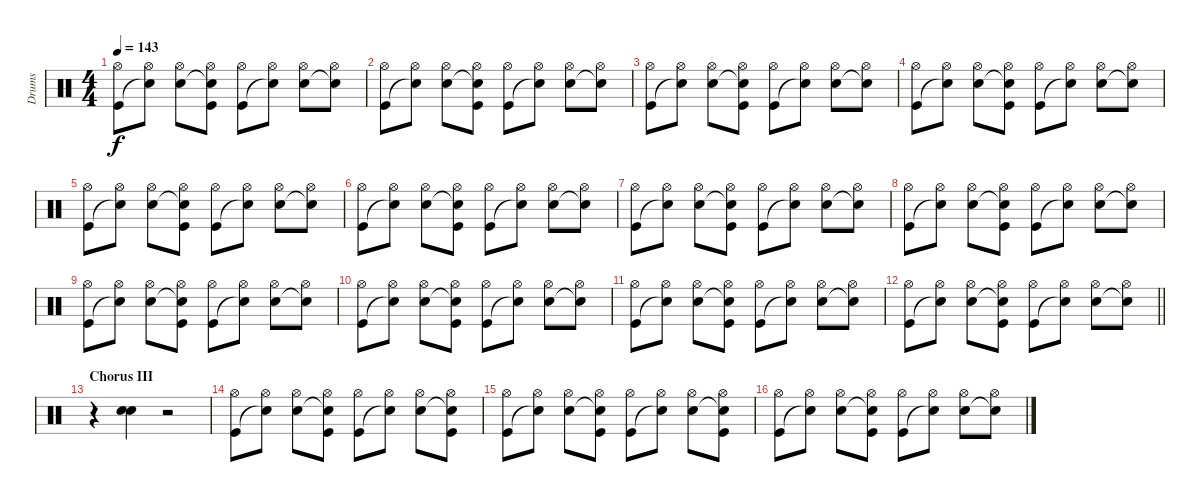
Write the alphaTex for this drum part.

\track ("Drums" "Drums") {instrument percussion}
\staff {score}
\articulation defaults
\ts (4 4)
\tempo 143
\clef neutral
\ks c
("Hi-Hat (open)" "Kick (hit)").8{dy f} ("Hi-Hat (open)" "Snare (hit)"{t}).8 ("Hi-Hat (open)" "Snare (hit) 2").8 ("Hi-Hat (open)" "Snare (hit)"{t} "Kick (hit)").8 ("Hi-Hat (open)" "Kick (hit)").8 ("Hi-Hat (open)" "Snare (hit)"{t}).8 ("Hi-Hat (open)" "Snare (hit) 2").8 ("Hi-Hat (open)" "Snare (hit)"{t}).8 |
("Hi-Hat (open)" "Kick (hit)").8 ("Hi-Hat (open)" "Snare (hit)"{t}).8 ("Hi-Hat (open)" "Snare (hit) 2").8 ("Hi-Hat (open)" "Snare (hit)"{t} "Kick (hit)").8 ("Hi-Hat (open)" "Kick (hit)").8 ("Hi-Hat (open)" "Snare (hit)"{t}).8 ("Hi-Hat (open)" "Snare (hit) 2").8 ("Hi-Hat (open)" "Snare (hit)"{t}).8 |
("Hi-Hat (open)" "Kick (hit)").8 ("Hi-Hat (open)" "Snare (hit)"{t}).8 ("Hi-Hat (open)" "Snare (hit) 2").8 ("Hi-Hat (open)" "Snare (hit)"{t} "Kick (hit)").8 ("Hi-Hat (open)" "Kick (hit)").8 ("Hi-Hat (open)" "Snare (hit)"{t}).8 ("Hi-Hat (open)" "Snare (hit) 2").8 ("Hi-Hat (open)" "Snare (hit)"{t}).8 |
("Hi-Hat (open)" "Kick (hit)").8 ("Hi-Hat (open)" "Snare (hit)"{t}).8 ("Hi-Hat (open)" "Snare (hit) 2").8 ("Hi-Hat (open)" "Snare (hit)"{t} "Kick (hit)").8 ("Hi-Hat (open)" "Kick (hit)").8 ("Hi-Hat (open)" "Snare (hit)"{t}).8 ("Hi-Hat (open)" "Snare (hit) 2").8 ("Hi-Hat (open)" "Snare (hit)"{t}).8 |
("Hi-Hat (open)" "Kick (hit)").8 ("Hi-Hat (open)" "Snare (hit)"{t}).8 ("Hi-Hat (open)" "Snare (hit) 2").8 ("Hi-Hat (open)" "Snare (hit)"{t} "Kick (hit)").8 ("Hi-Hat (open)" "Kick (hit)").8 ("Hi-Hat (open)" "Snare (hit)"{t}).8 ("Hi-Hat (open)" "Snare (hit) 2").8 ("Hi-Hat (open)" "Snare (hit)"{t}).8 |
("Hi-Hat (open)" "Kick (hit)").8 ("Hi-Hat (open)" "Snare (hit)"{t}).8 ("Hi-Hat (open)" "Snare (hit) 2").8 ("Hi-Hat (open)" "Snare (hit)"{t} "Kick (hit)").8 ("Hi-Hat (open)" "Kick (hit)").8 ("Hi-Hat (open)" "Snare (hit)"{t}).8 ("Hi-Hat (open)" "Snare (hit) 2").8 ("Hi-Hat (open)" "Snare (hit)"{t}).8 |
("Hi-Hat (open)" "Kick (hit)").8 ("Hi-Hat (open)" "Snare (hit)"{t}).8 ("Hi-Hat (open)" "Snare (hit) 2").8 ("Hi-Hat (open)" "Snare (hit)"{t} "Kick (hit)").8 ("Hi-Hat (open)" "Kick (hit)").8 ("Hi-Hat (open)" "Snare (hit)"{t}).8 ("Hi-Hat (open)" "Snare (hit) 2").8 ("Hi-Hat (open)" "Snare (hit)"{t}).8 |
("Hi-Hat (open)" "Kick (hit)").8 ("Hi-Hat (open)" "Snare (hit)"{t}).8 ("Hi-Hat (open)" "Snare (hit) 2").8 ("Hi-Hat (open)" "Snare (hit)"{t} "Kick (hit)").8 ("Hi-Hat (open)" "Kick (hit)").8 ("Hi-Hat (open)" "Snare (hit)"{t}).8 ("Hi-Hat (open)" "Snare (hit) 2").8 ("Hi-Hat (open)" "Snare (hit)"{t}).8 |
("Hi-Hat (open)" "Kick (hit)").8 ("Hi-Hat (open)" "Snare (hit)"{t}).8 ("Hi-Hat (open)" "Snare (hit) 2").8 ("Hi-Hat (open)" "Snare (hit)"{t} "Kick (hit)").8 ("Hi-Hat (open)" "Kick (hit)").8 ("Hi-Hat (open)" "Snare (hit)"{t}).8 ("Hi-Hat (open)" "Snare (hit) 2").8 ("Hi-Hat (open)" "Snare (hit)"{t}).8 |
("Hi-Hat (open)" "Kick (hit)").8 ("Hi-Hat (open)" "Snare (hit)"{t}).8 ("Hi-Hat (open)" "Snare (hit) 2").8 ("Hi-Hat (open)" "Snare (hit)"{t} "Kick (hit)").8 ("Hi-Hat (open)" "Kick (hit)").8 ("Hi-Hat (open)" "Snare (hit)"{t}).8 ("Hi-Hat (open)" "Snare (hit) 2").8 ("Hi-Hat (open)" "Snare (hit)"{t}).8 |
("Hi-Hat (open)" "Kick (hit)").8 ("Hi-Hat (open)" "Snare (hit)"{t}).8 ("Hi-Hat (open)" "Snare (hit) 2").8 ("Hi-Hat (open)" "Snare (hit)"{t} "Kick (hit)").8 ("Hi-Hat (open)" "Kick (hit)").8 ("Hi-Hat (open)" "Snare (hit)"{t}).8 ("Hi-Hat (open)" "Snare (hit) 2").8 ("Hi-Hat (open)" "Snare (hit)"{t}).8 |
\barLineRight lightlight
("Hi-Hat (open)" "Kick (hit)").8 ("Hi-Hat (open)" "Snare (hit)"{t}).8 ("Hi-Hat (open)" "Snare (hit) 2").8 ("Hi-Hat (open)" "Snare (hit)"{t} "Kick (hit)").8 ("Hi-Hat (open)" "Kick (hit)").8 ("Hi-Hat (open)" "Snare (hit)"{t}).8 ("Hi-Hat (open)" "Snare (hit) 2").8 ("Hi-Hat (open)" "Snare (hit)"{t}).8 |
\section ("" "Chorus III")
r.4 ("Electric Snare (hit)" "Snare (hit) 2").4 r.2 |
("Hi-Hat (open)" "Kick (hit)").8 ("Hi-Hat (open)" "Snare (hit)"{t}).8 ("Hi-Hat (open)" "Snare (hit) 2").8 ("Hi-Hat (open)" "Snare (hit)"{t} "Kick (hit)").8 ("Hi-Hat (open)" "Kick (hit)").8 ("Hi-Hat (open)" "Snare (hit)"{t}).8 ("Hi-Hat (open)" "Snare (hit) 2").8 ("Hi-Hat (open)" "Snare (hit)"{t} "Kick (hit)").8 |
("Hi-Hat (open)" "Kick (hit)").8 ("Hi-Hat (open)" "Snare (hit)"{t}).8 ("Hi-Hat (open)" "Snare (hit) 2").8 ("Hi-Hat (open)" "Snare (hit)"{t} "Kick (hit)").8 ("Hi-Hat (open)" "Kick (hit)").8 ("Hi-Hat (open)" "Snare (hit)"{t}).8 ("Hi-Hat (open)" "Snare (hit) 2").8 ("Hi-Hat (open)" "Snare (hit)"{t} "Kick (hit)").8 |
("Hi-Hat (open)" "Kick (hit)").8 ("Hi-Hat (open)" "Snare (hit)"{t}).8 ("Hi-Hat (open)" "Snare (hit) 2").8 ("Hi-Hat (open)" "Snare (hit)"{t} "Kick (hit)").8 ("Hi-Hat (open)" "Kick (hit)").8 ("Hi-Hat (open)" "Snare (hit)"{t}).8 ("Hi-Hat (open)" "Snare (hit) 2").8 ("Hi-Hat (open)" "Snare (hit)"{t}).8
